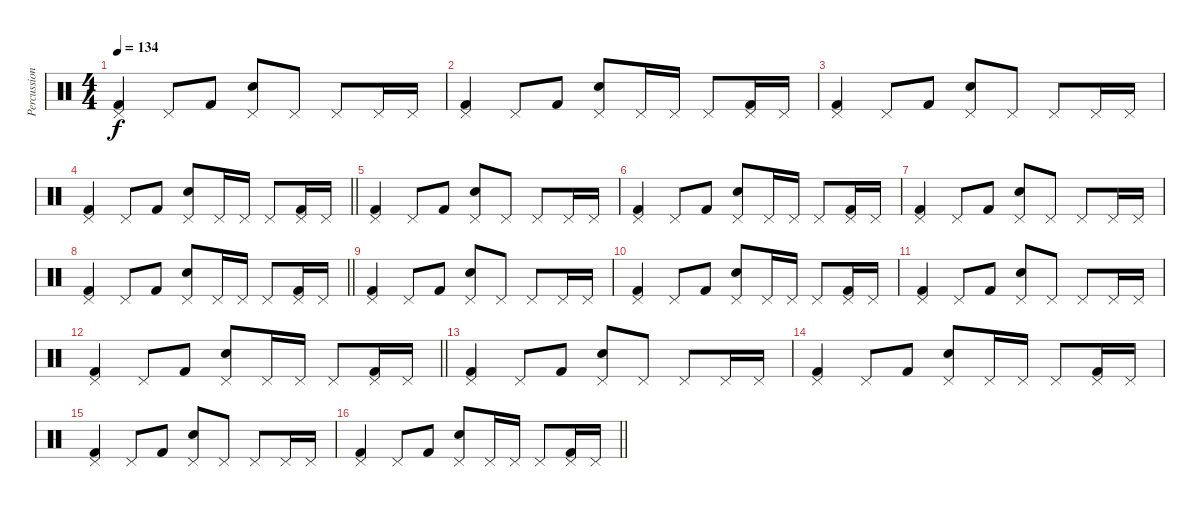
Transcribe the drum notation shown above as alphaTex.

\track ("Percussion" "Percussion") {instrument percussion}
\staff {score}
\articulation defaults
\ts (4 4)
\tempo 134
\clef neutral
\ks c
("Pedal Hi-Hat (hit)" "Kick (hit) 2").4{dy f} "Pedal Hi-Hat (hit)".8 "Kick (hit) 2".8 ("Pedal Hi-Hat (hit)" "Electric Snare (hit)").8 "Pedal Hi-Hat (hit)".8 "Pedal Hi-Hat (hit)".8 "Pedal Hi-Hat (hit)".16 "Pedal Hi-Hat (hit)".16 |
("Pedal Hi-Hat (hit)" "Kick (hit) 2").4 "Pedal Hi-Hat (hit)".8 "Kick (hit) 2".8 ("Pedal Hi-Hat (hit)" "Electric Snare (hit)").8 "Pedal Hi-Hat (hit)".16 "Pedal Hi-Hat (hit)".16 "Pedal Hi-Hat (hit)".8 ("Pedal Hi-Hat (hit)" "Kick (hit) 2").16 "Pedal Hi-Hat (hit)".16 |
("Pedal Hi-Hat (hit)" "Kick (hit) 2").4 "Pedal Hi-Hat (hit)".8 "Kick (hit) 2".8 ("Pedal Hi-Hat (hit)" "Electric Snare (hit)").8 "Pedal Hi-Hat (hit)".8 "Pedal Hi-Hat (hit)".8 "Pedal Hi-Hat (hit)".16 "Pedal Hi-Hat (hit)".16 |
\barLineRight lightlight
("Pedal Hi-Hat (hit)" "Kick (hit) 2").4 "Pedal Hi-Hat (hit)".8 "Kick (hit) 2".8 ("Pedal Hi-Hat (hit)" "Electric Snare (hit)").8 "Pedal Hi-Hat (hit)".16 "Pedal Hi-Hat (hit)".16 "Pedal Hi-Hat (hit)".8 ("Pedal Hi-Hat (hit)" "Kick (hit) 2").16 "Pedal Hi-Hat (hit)".16 |
("Pedal Hi-Hat (hit)" "Kick (hit) 2").4 "Pedal Hi-Hat (hit)".8 "Kick (hit) 2".8 ("Pedal Hi-Hat (hit)" "Electric Snare (hit)").8 "Pedal Hi-Hat (hit)".8 "Pedal Hi-Hat (hit)".8 "Pedal Hi-Hat (hit)".16 "Pedal Hi-Hat (hit)".16 |
("Pedal Hi-Hat (hit)" "Kick (hit) 2").4 "Pedal Hi-Hat (hit)".8 "Kick (hit) 2".8 ("Pedal Hi-Hat (hit)" "Electric Snare (hit)").8 "Pedal Hi-Hat (hit)".16 "Pedal Hi-Hat (hit)".16 "Pedal Hi-Hat (hit)".8 ("Pedal Hi-Hat (hit)" "Kick (hit) 2").16 "Pedal Hi-Hat (hit)".16 |
("Pedal Hi-Hat (hit)" "Kick (hit) 2").4 "Pedal Hi-Hat (hit)".8 "Kick (hit) 2".8 ("Pedal Hi-Hat (hit)" "Electric Snare (hit)").8 "Pedal Hi-Hat (hit)".8 "Pedal Hi-Hat (hit)".8 "Pedal Hi-Hat (hit)".16 "Pedal Hi-Hat (hit)".16 |
\barLineRight lightlight
("Pedal Hi-Hat (hit)" "Kick (hit) 2").4 "Pedal Hi-Hat (hit)".8 "Kick (hit) 2".8 ("Pedal Hi-Hat (hit)" "Electric Snare (hit)").8 "Pedal Hi-Hat (hit)".16 "Pedal Hi-Hat (hit)".16 "Pedal Hi-Hat (hit)".8 ("Pedal Hi-Hat (hit)" "Kick (hit) 2").16 "Pedal Hi-Hat (hit)".16 |
("Pedal Hi-Hat (hit)" "Kick (hit) 2").4 "Pedal Hi-Hat (hit)".8 "Kick (hit) 2".8 ("Pedal Hi-Hat (hit)" "Electric Snare (hit)").8 "Pedal Hi-Hat (hit)".8 "Pedal Hi-Hat (hit)".8 "Pedal Hi-Hat (hit)".16 "Pedal Hi-Hat (hit)".16 |
("Pedal Hi-Hat (hit)" "Kick (hit) 2").4 "Pedal Hi-Hat (hit)".8 "Kick (hit) 2".8 ("Pedal Hi-Hat (hit)" "Electric Snare (hit)").8 "Pedal Hi-Hat (hit)".16 "Pedal Hi-Hat (hit)".16 "Pedal Hi-Hat (hit)".8 ("Pedal Hi-Hat (hit)" "Kick (hit) 2").16 "Pedal Hi-Hat (hit)".16 |
("Pedal Hi-Hat (hit)" "Kick (hit) 2").4 "Pedal Hi-Hat (hit)".8 "Kick (hit) 2".8 ("Pedal Hi-Hat (hit)" "Electric Snare (hit)").8 "Pedal Hi-Hat (hit)".8 "Pedal Hi-Hat (hit)".8 "Pedal Hi-Hat (hit)".16 "Pedal Hi-Hat (hit)".16 |
\barLineRight lightlight
("Pedal Hi-Hat (hit)" "Kick (hit) 2").4 "Pedal Hi-Hat (hit)".8 "Kick (hit) 2".8 ("Pedal Hi-Hat (hit)" "Electric Snare (hit)").8 "Pedal Hi-Hat (hit)".16 "Pedal Hi-Hat (hit)".16 "Pedal Hi-Hat (hit)".8 ("Pedal Hi-Hat (hit)" "Kick (hit) 2").16 "Pedal Hi-Hat (hit)".16 |
("Pedal Hi-Hat (hit)" "Kick (hit) 2").4 "Pedal Hi-Hat (hit)".8 "Kick (hit) 2".8 ("Pedal Hi-Hat (hit)" "Electric Snare (hit)").8 "Pedal Hi-Hat (hit)".8 "Pedal Hi-Hat (hit)".8 "Pedal Hi-Hat (hit)".16 "Pedal Hi-Hat (hit)".16 |
("Pedal Hi-Hat (hit)" "Kick (hit) 2").4 "Pedal Hi-Hat (hit)".8 "Kick (hit) 2".8 ("Pedal Hi-Hat (hit)" "Electric Snare (hit)").8 "Pedal Hi-Hat (hit)".16 "Pedal Hi-Hat (hit)".16 "Pedal Hi-Hat (hit)".8 ("Pedal Hi-Hat (hit)" "Kick (hit) 2").16 "Pedal Hi-Hat (hit)".16 |
("Pedal Hi-Hat (hit)" "Kick (hit) 2").4 "Pedal Hi-Hat (hit)".8 "Kick (hit) 2".8 ("Pedal Hi-Hat (hit)" "Electric Snare (hit)").8 "Pedal Hi-Hat (hit)".8 "Pedal Hi-Hat (hit)".8 "Pedal Hi-Hat (hit)".16 "Pedal Hi-Hat (hit)".16 |
\barLineRight lightlight
("Pedal Hi-Hat (hit)" "Kick (hit) 2").4 "Pedal Hi-Hat (hit)".8 "Kick (hit) 2".8 ("Pedal Hi-Hat (hit)" "Electric Snare (hit)").8 "Pedal Hi-Hat (hit)".16 "Pedal Hi-Hat (hit)".16 "Pedal Hi-Hat (hit)".8 ("Pedal Hi-Hat (hit)" "Kick (hit) 2").16 "Pedal Hi-Hat (hit)".16
